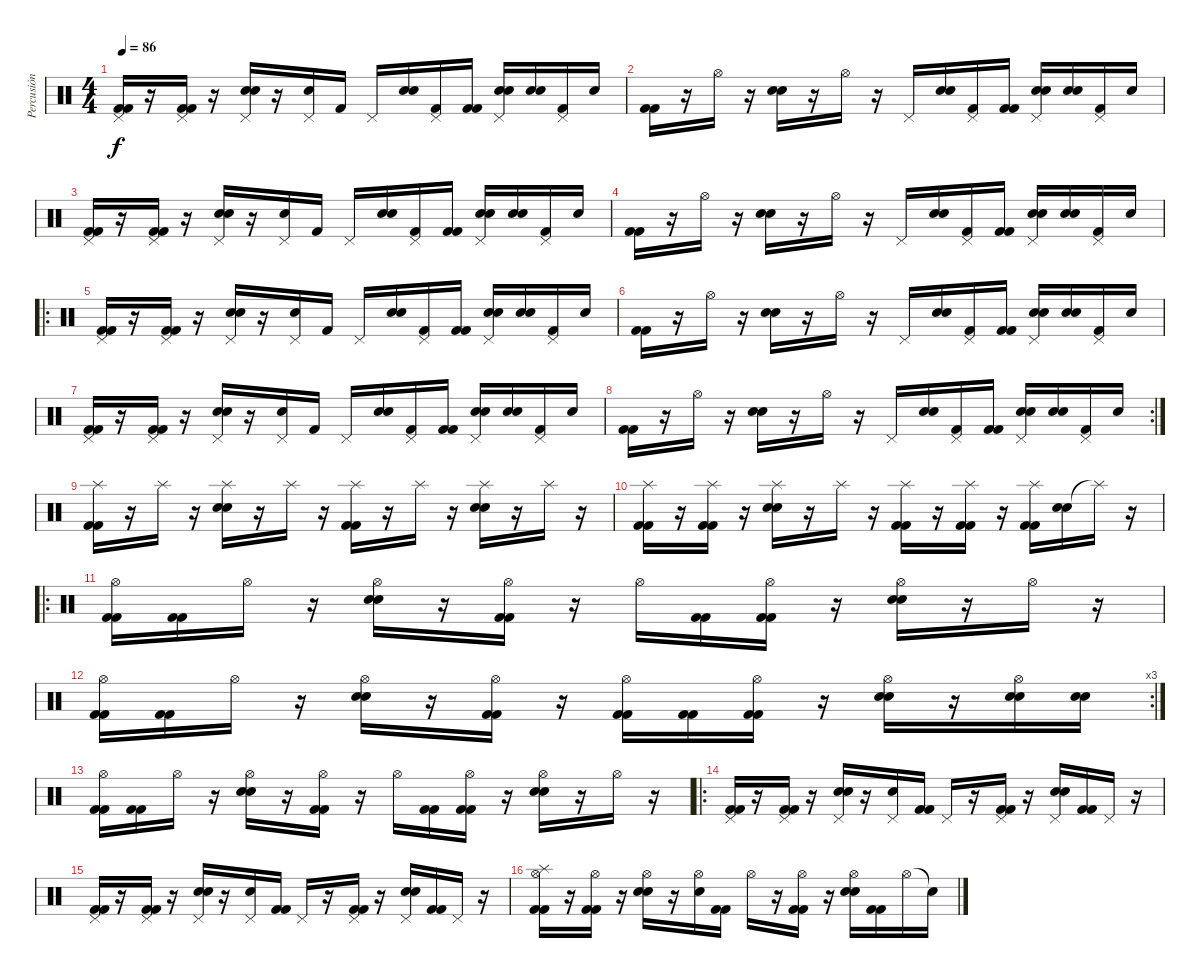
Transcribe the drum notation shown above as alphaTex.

\track ("Percusión" "Percusión") {instrument percussion}
\staff {score}
\articulation defaults
\ts (4 4)
\tempo 86
\clef neutral
\ks c
("Pedal Hi-Hat (hit)" "Kick (hit) 2" "Kick (hit) 2").16{dy f} r.16 ("Pedal Hi-Hat (hit)" "Kick (hit) 2" "Kick (hit) 2").16 r.16 ("Pedal Hi-Hat (hit)" "Electric Snare (hit)" "Electric Snare (hit)").16 r.16 ("Pedal Hi-Hat (hit)" "Electric Snare (hit)").16 "Kick (hit) 2".16 "Pedal Hi-Hat (hit)".16 ("Electric Snare (hit)" "Electric Snare (hit)").16 ("Pedal Hi-Hat (hit)" "Kick (hit) 2").16 ("Kick (hit) 2" "Kick (hit) 2").16 ("Pedal Hi-Hat (hit)" "Electric Snare (hit)" "Electric Snare (hit)").16 ("Electric Snare (hit)" "Electric Snare (hit)").16 ("Pedal Hi-Hat (hit)" "Kick (hit) 2").16 "Electric Snare (hit)".16 |
("Kick (hit) 2" "Kick (hit) 2").16 r.16 "Hi-Hat (open)".16 r.16 ("Electric Snare (hit)" "Electric Snare (hit)").16 r.16 "Hi-Hat (open)".16 r.16 "Pedal Hi-Hat (hit)".16 ("Electric Snare (hit)" "Electric Snare (hit)").16 ("Pedal Hi-Hat (hit)" "Kick (hit) 2").16 ("Kick (hit) 2" "Kick (hit) 2").16 ("Pedal Hi-Hat (hit)" "Electric Snare (hit)" "Electric Snare (hit)").16 ("Electric Snare (hit)" "Electric Snare (hit)").16 ("Pedal Hi-Hat (hit)" "Kick (hit) 2").16 "Electric Snare (hit)".16 |
("Pedal Hi-Hat (hit)" "Kick (hit) 2" "Kick (hit) 2").16 r.16 ("Pedal Hi-Hat (hit)" "Kick (hit) 2" "Kick (hit) 2").16 r.16 ("Pedal Hi-Hat (hit)" "Electric Snare (hit)" "Electric Snare (hit)").16 r.16 ("Pedal Hi-Hat (hit)" "Electric Snare (hit)").16 "Kick (hit) 2".16 "Pedal Hi-Hat (hit)".16 ("Electric Snare (hit)" "Electric Snare (hit)").16 ("Pedal Hi-Hat (hit)" "Kick (hit) 2").16 ("Kick (hit) 2" "Kick (hit) 2").16 ("Pedal Hi-Hat (hit)" "Electric Snare (hit)" "Electric Snare (hit)").16 ("Electric Snare (hit)" "Electric Snare (hit)").16 ("Pedal Hi-Hat (hit)" "Kick (hit) 2").16 "Electric Snare (hit)".16 |
("Kick (hit) 2" "Kick (hit) 2").16 r.16 "Hi-Hat (open)".16 r.16 ("Electric Snare (hit)" "Electric Snare (hit)").16 r.16 "Hi-Hat (open)".16 r.16 "Pedal Hi-Hat (hit)".16 ("Electric Snare (hit)" "Electric Snare (hit)").16 ("Pedal Hi-Hat (hit)" "Kick (hit) 2").16 ("Kick (hit) 2" "Kick (hit) 2").16 ("Pedal Hi-Hat (hit)" "Electric Snare (hit)" "Electric Snare (hit)").16 ("Electric Snare (hit)" "Electric Snare (hit)").16 ("Pedal Hi-Hat (hit)" "Kick (hit) 2").16 "Electric Snare (hit)".16 |
\ro
("Pedal Hi-Hat (hit)" "Kick (hit) 2" "Kick (hit) 2").16 r.16 ("Pedal Hi-Hat (hit)" "Kick (hit) 2" "Kick (hit) 2").16 r.16 ("Pedal Hi-Hat (hit)" "Electric Snare (hit)" "Electric Snare (hit)").16 r.16 ("Pedal Hi-Hat (hit)" "Electric Snare (hit)").16 "Kick (hit) 2".16 "Pedal Hi-Hat (hit)".16 ("Electric Snare (hit)" "Electric Snare (hit)").16 ("Pedal Hi-Hat (hit)" "Kick (hit) 2").16 ("Kick (hit) 2" "Kick (hit) 2").16 ("Pedal Hi-Hat (hit)" "Electric Snare (hit)" "Electric Snare (hit)").16 ("Electric Snare (hit)" "Electric Snare (hit)").16 ("Pedal Hi-Hat (hit)" "Kick (hit) 2").16 "Electric Snare (hit)".16 |
("Kick (hit) 2" "Kick (hit) 2").16 r.16 "Hi-Hat (open)".16 r.16 ("Electric Snare (hit)" "Electric Snare (hit)").16 r.16 "Hi-Hat (open)".16 r.16 "Pedal Hi-Hat (hit)".16 ("Electric Snare (hit)" "Electric Snare (hit)").16 ("Pedal Hi-Hat (hit)" "Kick (hit) 2").16 ("Kick (hit) 2" "Kick (hit) 2").16 ("Pedal Hi-Hat (hit)" "Electric Snare (hit)" "Electric Snare (hit)").16 ("Electric Snare (hit)" "Electric Snare (hit)").16 ("Pedal Hi-Hat (hit)" "Kick (hit) 2").16 "Electric Snare (hit)".16 |
("Pedal Hi-Hat (hit)" "Kick (hit) 2" "Kick (hit) 2").16 r.16 ("Pedal Hi-Hat (hit)" "Kick (hit) 2" "Kick (hit) 2").16 r.16 ("Pedal Hi-Hat (hit)" "Electric Snare (hit)" "Electric Snare (hit)").16 r.16 ("Pedal Hi-Hat (hit)" "Electric Snare (hit)").16 "Kick (hit) 2".16 "Pedal Hi-Hat (hit)".16 ("Electric Snare (hit)" "Electric Snare (hit)").16 ("Pedal Hi-Hat (hit)" "Kick (hit) 2").16 ("Kick (hit) 2" "Kick (hit) 2").16 ("Pedal Hi-Hat (hit)" "Electric Snare (hit)" "Electric Snare (hit)").16 ("Electric Snare (hit)" "Electric Snare (hit)").16 ("Pedal Hi-Hat (hit)" "Kick (hit) 2").16 "Electric Snare (hit)".16 |
\rc 2
("Kick (hit) 2" "Kick (hit) 2").16 r.16 "Hi-Hat (open)".16 r.16 ("Electric Snare (hit)" "Electric Snare (hit)").16 r.16 "Hi-Hat (open)".16 r.16 "Pedal Hi-Hat (hit)".16 ("Electric Snare (hit)" "Electric Snare (hit)").16 ("Pedal Hi-Hat (hit)" "Kick (hit) 2").16 ("Kick (hit) 2" "Kick (hit) 2").16 ("Pedal Hi-Hat (hit)" "Electric Snare (hit)" "Electric Snare (hit)").16 ("Electric Snare (hit)" "Electric Snare (hit)").16 ("Pedal Hi-Hat (hit)" "Kick (hit) 2").16 "Electric Snare (hit)".16 |
("Splash (hit)" "Kick (hit) 2" "Kick (hit) 2").16 r.16 "Splash (hit)".16 r.16 ("Splash (hit)" "Electric Snare (hit)" "Electric Snare (hit)").16 r.16 "Splash (hit)".16 r.16 ("Splash (hit)" "Kick (hit) 2" "Kick (hit) 2").16 r.16 "Splash (hit)".16 r.16 ("Splash (hit)" "Electric Snare (hit)" "Electric Snare (hit)").16 r.16 "Splash (hit)".16 r.16 |
("Splash (hit)" "Kick (hit) 2" "Kick (hit) 2").16 r.16 ("Splash (hit)" "Kick (hit) 2" "Kick (hit) 2").16 r.16 ("Splash (hit)" "Electric Snare (hit)" "Electric Snare (hit)").16 r.16 "Splash (hit)".16 r.16 ("Splash (hit)" "Kick (hit) 2" "Kick (hit) 2").16 r.16 ("Splash (hit)" "Kick (hit) 2" "Kick (hit) 2").16 r.16 ("Splash (hit)" "Kick (hit) 2" "Kick (hit) 2").16 ("Electric Snare (hit)" "Electric Snare (hit)").16 "Splash (hit)"{t}.16 r.16 |
\ro
("Hi-Hat (open)" "Kick (hit) 2" "Kick (hit) 2").16 ("Kick (hit) 2" "Kick (hit) 2").16 "Hi-Hat (open)".16 r.16 ("Hi-Hat (open)" "Electric Snare (hit)" "Electric Snare (hit)").16 r.16 ("Hi-Hat (open)" "Kick (hit) 2" "Kick (hit) 2").16 r.16 "Hi-Hat (open)".16 ("Kick (hit) 2" "Kick (hit) 2").16 ("Hi-Hat (open)" "Kick (hit) 2" "Kick (hit) 2").16 r.16 ("Hi-Hat (open)" "Electric Snare (hit)" "Electric Snare (hit)").16 r.16 "Hi-Hat (open)".16 r.16 |
\rc 3
("Hi-Hat (open)" "Kick (hit) 2" "Kick (hit) 2").16 ("Kick (hit) 2" "Kick (hit) 2").16 "Hi-Hat (open)".16 r.16 ("Hi-Hat (open)" "Electric Snare (hit)" "Electric Snare (hit)").16 r.16 ("Hi-Hat (open)" "Kick (hit) 2" "Kick (hit) 2").16 r.16 ("Hi-Hat (open)" "Kick (hit) 2" "Kick (hit) 2").16 ("Kick (hit) 2" "Kick (hit) 2").16 ("Hi-Hat (open)" "Kick (hit) 2" "Kick (hit) 2").16 r.16 ("Hi-Hat (open)" "Electric Snare (hit)" "Electric Snare (hit)").16 r.16 ("Hi-Hat (open)" "Electric Snare (hit)" "Electric Snare (hit)").16 ("Electric Snare (hit)" "Electric Snare (hit)").16 |
("Hi-Hat (open)" "Kick (hit) 2" "Kick (hit) 2").16 ("Kick (hit) 2" "Kick (hit) 2").16 "Hi-Hat (open)".16 r.16 ("Hi-Hat (open)" "Electric Snare (hit)" "Electric Snare (hit)").16 r.16 ("Hi-Hat (open)" "Kick (hit) 2" "Kick (hit) 2").16 r.16 "Hi-Hat (open)".16 ("Kick (hit) 2" "Kick (hit) 2").16 ("Hi-Hat (open)" "Kick (hit) 2" "Kick (hit) 2").16 r.16 ("Hi-Hat (open)" "Electric Snare (hit)" "Electric Snare (hit)").16 r.16 "Hi-Hat (open)".16 r.16 |
\ro
("Pedal Hi-Hat (hit)" "Kick (hit) 2" "Kick (hit) 2").16 r.16 ("Pedal Hi-Hat (hit)" "Kick (hit) 2" "Kick (hit) 2").16 r.16 ("Pedal Hi-Hat (hit)" "Electric Snare (hit)" "Electric Snare (hit)").16 r.16 ("Pedal Hi-Hat (hit)" "Electric Snare (hit)").16 ("Kick (hit) 2" "Kick (hit) 2").16 "Pedal Hi-Hat (hit)".16 r.16 ("Pedal Hi-Hat (hit)" "Kick (hit) 2" "Kick (hit) 2").16 r.16 ("Pedal Hi-Hat (hit)" "Electric Snare (hit)" "Electric Snare (hit)").16 ("Kick (hit) 2" "Kick (hit) 2").16 "Pedal Hi-Hat (hit)".16 r.16 |
("Pedal Hi-Hat (hit)" "Kick (hit) 2" "Kick (hit) 2").16 r.16 ("Pedal Hi-Hat (hit)" "Kick (hit) 2" "Kick (hit) 2").16 r.16 ("Pedal Hi-Hat (hit)" "Electric Snare (hit)" "Electric Snare (hit)").16 r.16 ("Pedal Hi-Hat (hit)" "Electric Snare (hit)").16 ("Kick (hit) 2" "Kick (hit) 2").16 "Pedal Hi-Hat (hit)".16 r.16 ("Pedal Hi-Hat (hit)" "Kick (hit) 2" "Kick (hit) 2").16 r.16 ("Pedal Hi-Hat (hit)" "Electric Snare (hit)" "Electric Snare (hit)").16 ("Kick (hit) 2" "Kick (hit) 2").16 "Pedal Hi-Hat (hit)".16 r.16 |
("Hi-Hat (open)" "Splash (hit)" "Kick (hit) 2" "Kick (hit) 2").16 r.16 ("Hi-Hat (open)" "Kick (hit) 2" "Kick (hit) 2").16 r.16 ("Hi-Hat (open)" "Electric Snare (hit)" "Electric Snare (hit)").16 r.16 ("Hi-Hat (open)" "Electric Snare (hit)").16 ("Kick (hit) 2" "Kick (hit) 2").16 "Hi-Hat (open)".16 r.16 ("Hi-Hat (open)" "Kick (hit) 2" "Kick (hit) 2").16 r.16 ("Hi-Hat (open)" "Electric Snare (hit)" "Electric Snare (hit)").16 ("Kick (hit) 2" "Kick (hit) 2").16 "Hi-Hat (open)".16 "Snare (hit)"{t}.16
